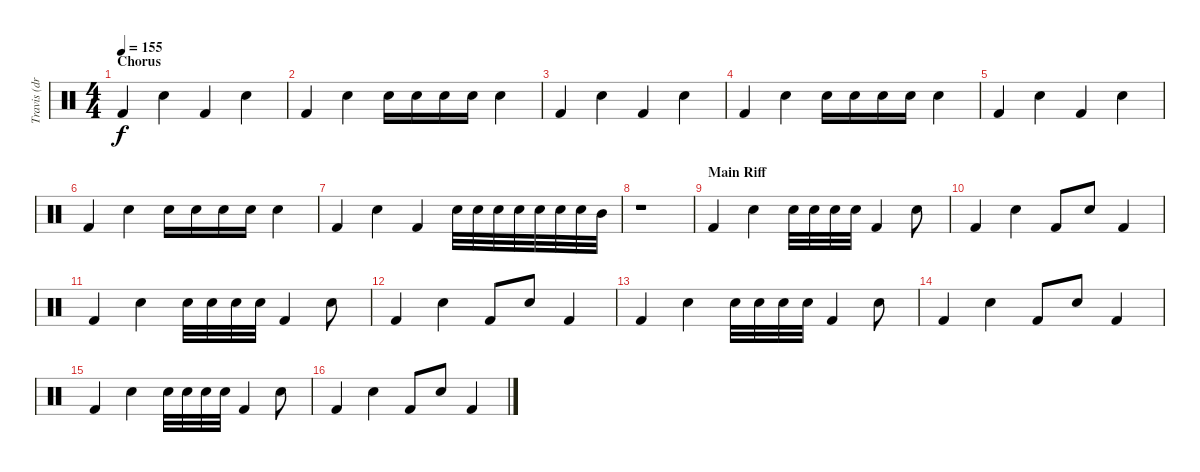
\track ("Travis (drums)" "Travis (dr") {instrument percussion}
\staff {score}
\articulation defaults
\ts (4 4)
\section ("" "Chorus")
\tempo 155
\clef neutral
\ks c "Kick (hit) 2".4{dy f} "Snare (hit) 2".4 "Kick (hit) 2".4 "Snare (hit) 2".4
|
"Kick (hit) 2".4 "Snare (hit) 2".4 "Snare (hit) 2".16 "Snare (hit) 2".16 "Snare (hit) 2".16 "Snare (hit) 2".16 "Snare (hit) 2".4 |
"Kick (hit) 2".4 "Snare (hit) 2".4 "Kick (hit) 2".4 "Snare (hit) 2".4 |
"Kick (hit) 2".4 "Snare (hit) 2".4 "Snare (hit) 2".16 "Snare (hit) 2".16 "Snare (hit) 2".16 "Snare (hit) 2".16 "Snare (hit) 2".4 |
"Kick (hit) 2".4 "Snare (hit) 2".4 "Kick (hit) 2".4 "Snare (hit) 2".4 |
"Kick (hit) 2".4 "Snare (hit) 2".4 "Snare (hit) 2".16 "Snare (hit) 2".16 "Snare (hit) 2".16 "Snare (hit) 2".16 "Snare (hit) 2".4 |
"Kick (hit) 2".4 "Snare (hit) 2".4 "Kick (hit) 2".4 "Snare (hit) 2".32 "Snare (hit) 2".32 "Snare (hit) 2".32 "Snare (hit) 2".32 "Snare (hit) 2".32 "Snare (hit) 2".32 "Snare (hit) 2".32 "Mid Tom (hit)".32 |
r.1 |
\section ("" "Main Riff")
"Kick (hit) 2".4 "Snare (hit) 2".4 "Snare (hit) 2".32 "Snare (hit) 2".32 "Snare (hit) 2".32 "Snare (hit) 2".32 "Kick (hit) 2".4 "Snare (hit) 2".8 |
"Kick (hit) 2".4 "Snare (hit) 2".4 "Kick (hit) 2".8 "Snare (hit) 2".8 "Kick (hit) 2".4 |
"Kick (hit) 2".4 "Snare (hit) 2".4 "Snare (hit) 2".32 "Snare (hit) 2".32 "Snare (hit) 2".32 "Snare (hit) 2".32 "Kick (hit) 2".4 "Snare (hit) 2".8 |
"Kick (hit) 2".4 "Snare (hit) 2".4 "Kick (hit) 2".8 "Snare (hit) 2".8 "Kick (hit) 2".4 |
"Kick (hit) 2".4 "Snare (hit) 2".4 "Snare (hit) 2".32 "Snare (hit) 2".32 "Snare (hit) 2".32 "Snare (hit) 2".32 "Kick (hit) 2".4 "Snare (hit) 2".8 |
"Kick (hit) 2".4 "Snare (hit) 2".4 "Kick (hit) 2".8 "Snare (hit) 2".8 "Kick (hit) 2".4 |
"Kick (hit) 2".4 "Snare (hit) 2".4 "Snare (hit) 2".32 "Snare (hit) 2".32 "Snare (hit) 2".32 "Snare (hit) 2".32 "Kick (hit) 2".4 "Snare (hit) 2".8 |
"Kick (hit) 2".4 "Snare (hit) 2".4 "Kick (hit) 2".8 "Snare (hit) 2".8 "Kick (hit) 2".4
